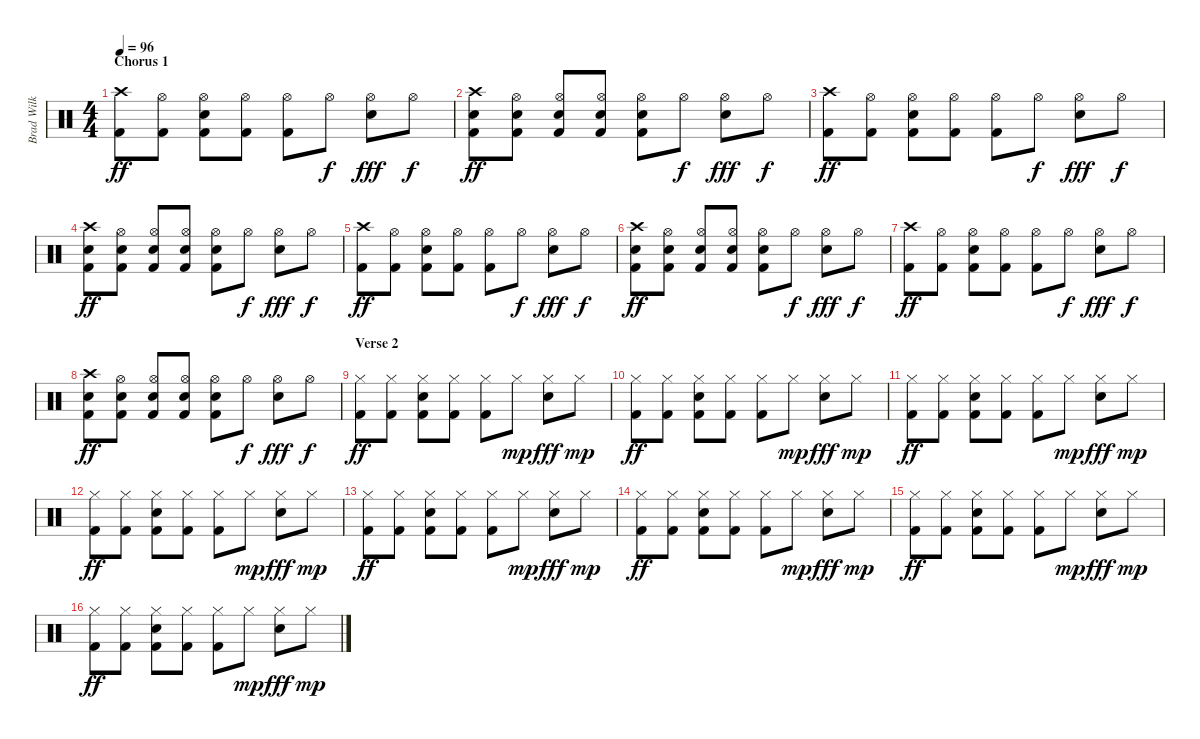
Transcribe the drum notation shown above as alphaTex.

\track ("Brad Wilk / Drums" "Brad Wilk ") {instrument percussion}
\staff {score}
\articulation defaults
\ts (4 4)
\section ("" "Chorus 1")
\tempo 96
\clef neutral
\ks c
("Crash high (hit)" "Kick (hit) 2").8{dy ff} ("Hi-Hat (open)" "Kick (hit) 2").8 ("Hi-Hat (open)" "Electric Snare (hit)" "Kick (hit) 2").8 ("Hi-Hat (open)" "Kick (hit) 2").8 ("Hi-Hat (open)" "Kick (hit) 2").8 "Hi-Hat (open)".8{dy f} ("Hi-Hat (open)" "Electric Snare (hit)").8{dy fff} "Hi-Hat (open)".8{dy f} |
("Crash high (hit)" "Electric Snare (hit)" "Kick (hit) 2").8{dy ff} ("Hi-Hat (open)" "Electric Snare (hit)" "Kick (hit) 2").8 ("Hi-Hat (open)" "Electric Snare (hit)" "Kick (hit) 2").8 ("Hi-Hat (open)" "Electric Snare (hit)" "Kick (hit) 2").8 ("Hi-Hat (open)" "Electric Snare (hit)" "Kick (hit) 2").8 "Hi-Hat (open)".8{dy f} ("Hi-Hat (open)" "Electric Snare (hit)").8{dy fff} "Hi-Hat (open)".8{dy f} |
("Crash high (hit)" "Kick (hit) 2").8{dy ff} ("Hi-Hat (open)" "Kick (hit) 2").8 ("Hi-Hat (open)" "Electric Snare (hit)" "Kick (hit) 2").8 ("Hi-Hat (open)" "Kick (hit) 2").8 ("Hi-Hat (open)" "Kick (hit) 2").8 "Hi-Hat (open)".8{dy f} ("Hi-Hat (open)" "Electric Snare (hit)").8{dy fff} "Hi-Hat (open)".8{dy f} |
("Crash high (hit)" "Electric Snare (hit)" "Kick (hit) 2").8{dy ff} ("Hi-Hat (open)" "Electric Snare (hit)" "Kick (hit) 2").8 ("Hi-Hat (open)" "Electric Snare (hit)" "Kick (hit) 2").8 ("Hi-Hat (open)" "Electric Snare (hit)" "Kick (hit) 2").8 ("Hi-Hat (open)" "Electric Snare (hit)" "Kick (hit) 2").8 "Hi-Hat (open)".8{dy f} ("Hi-Hat (open)" "Electric Snare (hit)").8{dy fff} "Hi-Hat (open)".8{dy f} |
("Crash high (hit)" "Kick (hit) 2").8{dy ff} ("Hi-Hat (open)" "Kick (hit) 2").8 ("Hi-Hat (open)" "Electric Snare (hit)" "Kick (hit) 2").8 ("Hi-Hat (open)" "Kick (hit) 2").8 ("Hi-Hat (open)" "Kick (hit) 2").8 "Hi-Hat (open)".8{dy f} ("Hi-Hat (open)" "Electric Snare (hit)").8{dy fff} "Hi-Hat (open)".8{dy f} |
("Crash high (hit)" "Electric Snare (hit)" "Kick (hit) 2").8{dy ff} ("Hi-Hat (open)" "Electric Snare (hit)" "Kick (hit) 2").8 ("Hi-Hat (open)" "Electric Snare (hit)" "Kick (hit) 2").8 ("Hi-Hat (open)" "Electric Snare (hit)" "Kick (hit) 2").8 ("Hi-Hat (open)" "Electric Snare (hit)" "Kick (hit) 2").8 "Hi-Hat (open)".8{dy f} ("Hi-Hat (open)" "Electric Snare (hit)").8{dy fff} "Hi-Hat (open)".8{dy f} |
("Crash high (hit)" "Kick (hit) 2").8{dy ff} ("Hi-Hat (open)" "Kick (hit) 2").8 ("Hi-Hat (open)" "Electric Snare (hit)" "Kick (hit) 2").8 ("Hi-Hat (open)" "Kick (hit) 2").8 ("Hi-Hat (open)" "Kick (hit) 2").8 "Hi-Hat (open)".8{dy f} ("Hi-Hat (open)" "Electric Snare (hit)").8{dy fff} "Hi-Hat (open)".8{dy f} |
("Crash high (hit)" "Electric Snare (hit)" "Kick (hit) 2").8{dy ff} ("Hi-Hat (open)" "Electric Snare (hit)" "Kick (hit) 2").8 ("Hi-Hat (open)" "Electric Snare (hit)" "Kick (hit) 2").8 ("Hi-Hat (open)" "Electric Snare (hit)" "Kick (hit) 2").8 ("Hi-Hat (open)" "Electric Snare (hit)" "Kick (hit) 2").8 "Hi-Hat (open)".8{dy f} ("Hi-Hat (open)" "Electric Snare (hit)").8{dy fff} "Hi-Hat (open)".8{dy f} |
\section ("" "Verse 2")
("Hi-Hat (closed)" "Kick (hit) 2").8{dy ff} ("Hi-Hat (closed)" "Kick (hit) 2").8 ("Hi-Hat (closed)" "Electric Snare (hit)" "Kick (hit) 2").8 ("Hi-Hat (closed)" "Kick (hit) 2").8 ("Hi-Hat (closed)" "Kick (hit) 2").8 "Hi-Hat (closed)".8{dy mp} ("Hi-Hat (closed)" "Electric Snare (hit)").8{dy fff} "Hi-Hat (closed)".8{dy mp} |
("Hi-Hat (closed)" "Kick (hit) 2").8{dy ff} ("Hi-Hat (closed)" "Kick (hit) 2").8 ("Hi-Hat (closed)" "Electric Snare (hit)" "Kick (hit) 2").8 ("Hi-Hat (closed)" "Kick (hit) 2").8 ("Hi-Hat (closed)" "Kick (hit) 2").8 "Hi-Hat (closed)".8{dy mp} ("Hi-Hat (closed)" "Electric Snare (hit)").8{dy fff} "Hi-Hat (closed)".8{dy mp} |
("Hi-Hat (closed)" "Kick (hit) 2").8{dy ff} ("Hi-Hat (closed)" "Kick (hit) 2").8 ("Hi-Hat (closed)" "Electric Snare (hit)" "Kick (hit) 2").8 ("Hi-Hat (closed)" "Kick (hit) 2").8 ("Hi-Hat (closed)" "Kick (hit) 2").8 "Hi-Hat (closed)".8{dy mp} ("Hi-Hat (closed)" "Electric Snare (hit)").8{dy fff} "Hi-Hat (closed)".8{dy mp} |
("Hi-Hat (closed)" "Kick (hit) 2").8{dy ff} ("Hi-Hat (closed)" "Kick (hit) 2").8 ("Hi-Hat (closed)" "Electric Snare (hit)" "Kick (hit) 2").8 ("Hi-Hat (closed)" "Kick (hit) 2").8 ("Hi-Hat (closed)" "Kick (hit) 2").8 "Hi-Hat (closed)".8{dy mp} ("Hi-Hat (closed)" "Electric Snare (hit)").8{dy fff} "Hi-Hat (closed)".8{dy mp} |
("Hi-Hat (closed)" "Kick (hit) 2").8{dy ff} ("Hi-Hat (closed)" "Kick (hit) 2").8 ("Hi-Hat (closed)" "Electric Snare (hit)" "Kick (hit) 2").8 ("Hi-Hat (closed)" "Kick (hit) 2").8 ("Hi-Hat (closed)" "Kick (hit) 2").8 "Hi-Hat (closed)".8{dy mp} ("Hi-Hat (closed)" "Electric Snare (hit)").8{dy fff} "Hi-Hat (closed)".8{dy mp} |
("Hi-Hat (closed)" "Kick (hit) 2").8{dy ff} ("Hi-Hat (closed)" "Kick (hit) 2").8 ("Hi-Hat (closed)" "Electric Snare (hit)" "Kick (hit) 2").8 ("Hi-Hat (closed)" "Kick (hit) 2").8 ("Hi-Hat (closed)" "Kick (hit) 2").8 "Hi-Hat (closed)".8{dy mp} ("Hi-Hat (closed)" "Electric Snare (hit)").8{dy fff} "Hi-Hat (closed)".8{dy mp} |
("Hi-Hat (closed)" "Kick (hit) 2").8{dy ff} ("Hi-Hat (closed)" "Kick (hit) 2").8 ("Hi-Hat (closed)" "Electric Snare (hit)" "Kick (hit) 2").8 ("Hi-Hat (closed)" "Kick (hit) 2").8 ("Hi-Hat (closed)" "Kick (hit) 2").8 "Hi-Hat (closed)".8{dy mp} ("Hi-Hat (closed)" "Electric Snare (hit)").8{dy fff} "Hi-Hat (closed)".8{dy mp} |
("Hi-Hat (closed)" "Kick (hit) 2").8{dy ff} ("Hi-Hat (closed)" "Kick (hit) 2").8 ("Hi-Hat (closed)" "Electric Snare (hit)" "Kick (hit) 2").8 ("Hi-Hat (closed)" "Kick (hit) 2").8 ("Hi-Hat (closed)" "Kick (hit) 2").8 "Hi-Hat (closed)".8{dy mp} ("Hi-Hat (closed)" "Electric Snare (hit)").8{dy fff} "Hi-Hat (closed)".8{dy mp}
